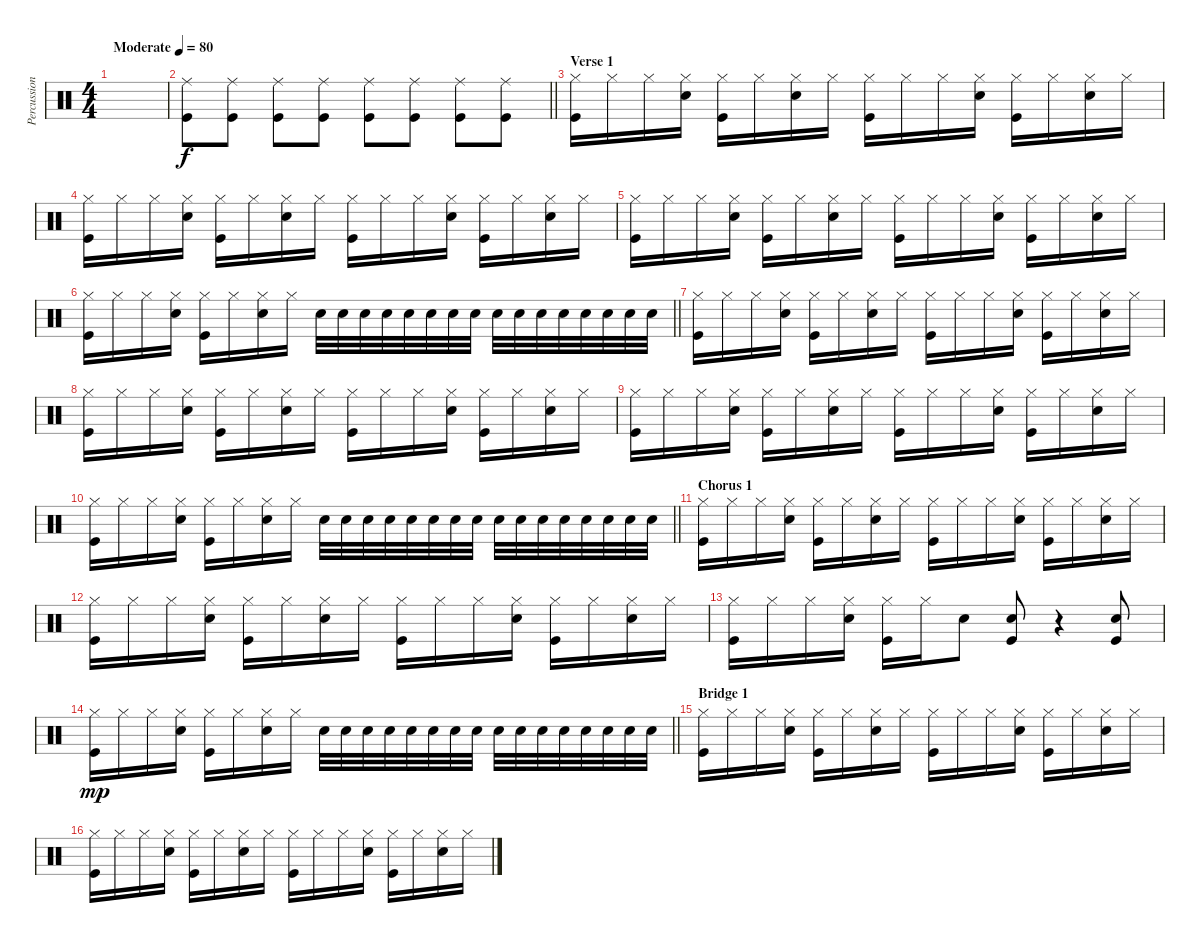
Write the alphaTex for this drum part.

\track ("Percussion" "Percussion") {instrument percussion}
\staff {score}
\articulation defaults
\ts (4 4)
\tempo (80 "Moderate")
\clef neutral
\ks c
|
\barLineRight lightlight
("Ride (middle)" "Kick (hit)").8 ("Ride (middle)" "Kick (hit)").8 ("Ride (middle)" "Kick (hit)").8 ("Ride (middle)" "Kick (hit)").8 ("Ride (middle)" "Kick (hit)").8 ("Ride (middle)" "Kick (hit)").8 ("Ride (middle)" "Kick (hit)").8 ("Ride (middle)" "Kick (hit)").8 |
\section ("" "Verse 1")
("Kick (hit)" "Hi-Hat (closed)").16 "Hi-Hat (closed)".16 "Hi-Hat (closed)".16 ("Snare (hit) 2" "Hi-Hat (closed)").16 ("Kick (hit)" "Hi-Hat (closed)").16 "Hi-Hat (closed)".16 ("Snare (hit) 2" "Hi-Hat (closed)").16 "Hi-Hat (closed)".16 ("Kick (hit)" "Hi-Hat (closed)").16 "Hi-Hat (closed)".16 "Hi-Hat (closed)".16 ("Snare (hit) 2" "Hi-Hat (closed)").16 ("Kick (hit)" "Hi-Hat (closed)").16 "Hi-Hat (closed)".16 ("Snare (hit) 2" "Hi-Hat (closed)").16 "Hi-Hat (closed)".16 |
("Kick (hit)" "Hi-Hat (closed)").16 "Hi-Hat (closed)".16 "Hi-Hat (closed)".16 ("Snare (hit) 2" "Hi-Hat (closed)").16 ("Kick (hit)" "Hi-Hat (closed)").16 "Hi-Hat (closed)".16 ("Snare (hit) 2" "Hi-Hat (closed)").16 "Hi-Hat (closed)".16 ("Kick (hit)" "Hi-Hat (closed)").16 "Hi-Hat (closed)".16 "Hi-Hat (closed)".16 ("Snare (hit) 2" "Hi-Hat (closed)").16 ("Kick (hit)" "Hi-Hat (closed)").16 "Hi-Hat (closed)".16 ("Snare (hit) 2" "Hi-Hat (closed)").16 "Hi-Hat (closed)".16 |
("Kick (hit)" "Hi-Hat (closed)").16 "Hi-Hat (closed)".16 "Hi-Hat (closed)".16 ("Snare (hit) 2" "Hi-Hat (closed)").16 ("Kick (hit)" "Hi-Hat (closed)").16 "Hi-Hat (closed)".16 ("Snare (hit) 2" "Hi-Hat (closed)").16 "Hi-Hat (closed)".16 ("Kick (hit)" "Hi-Hat (closed)").16 "Hi-Hat (closed)".16 "Hi-Hat (closed)".16 ("Snare (hit) 2" "Hi-Hat (closed)").16 ("Kick (hit)" "Hi-Hat (closed)").16 "Hi-Hat (closed)".16 ("Snare (hit) 2" "Hi-Hat (closed)").16 "Hi-Hat (closed)".16 |
\barLineRight lightlight
("Kick (hit)" "Hi-Hat (closed)").16 "Hi-Hat (closed)".16 "Hi-Hat (closed)".16 ("Snare (hit) 2" "Hi-Hat (closed)").16 ("Kick (hit)" "Hi-Hat (closed)").16 "Hi-Hat (closed)".16 ("Snare (hit) 2" "Hi-Hat (closed)").16 "Hi-Hat (closed)".16 "Snare (hit) 2".32 "Snare (hit) 2".32 "Snare (hit) 2".32 "Snare (hit) 2".32 "Snare (hit) 2".32 "Snare (hit) 2".32 "Snare (hit) 2".32 "Snare (hit) 2".32 "Snare (hit) 2".32 "Snare (hit) 2".32 "Snare (hit) 2".32 "Snare (hit) 2".32 "Snare (hit) 2".32 "Snare (hit) 2".32 "Snare (hit) 2".32 "Snare (hit) 2".32 |
("Kick (hit)" "Hi-Hat (closed)").16 "Hi-Hat (closed)".16 "Hi-Hat (closed)".16 ("Snare (hit) 2" "Hi-Hat (closed)").16 ("Kick (hit)" "Hi-Hat (closed)").16 "Hi-Hat (closed)".16 ("Snare (hit) 2" "Hi-Hat (closed)").16 "Hi-Hat (closed)".16 ("Kick (hit)" "Hi-Hat (closed)").16 "Hi-Hat (closed)".16 "Hi-Hat (closed)".16 ("Snare (hit) 2" "Hi-Hat (closed)").16 ("Kick (hit)" "Hi-Hat (closed)").16 "Hi-Hat (closed)".16 ("Snare (hit) 2" "Hi-Hat (closed)").16 "Hi-Hat (closed)".16 |
("Kick (hit)" "Hi-Hat (closed)").16 "Hi-Hat (closed)".16 "Hi-Hat (closed)".16 ("Snare (hit) 2" "Hi-Hat (closed)").16 ("Kick (hit)" "Hi-Hat (closed)").16 "Hi-Hat (closed)".16 ("Snare (hit) 2" "Hi-Hat (closed)").16 "Hi-Hat (closed)".16 ("Kick (hit)" "Hi-Hat (closed)").16 "Hi-Hat (closed)".16 "Hi-Hat (closed)".16 ("Snare (hit) 2" "Hi-Hat (closed)").16 ("Kick (hit)" "Hi-Hat (closed)").16 "Hi-Hat (closed)".16 ("Snare (hit) 2" "Hi-Hat (closed)").16 "Hi-Hat (closed)".16 |
("Kick (hit)" "Hi-Hat (closed)").16 "Hi-Hat (closed)".16 "Hi-Hat (closed)".16 ("Snare (hit) 2" "Hi-Hat (closed)").16 ("Kick (hit)" "Hi-Hat (closed)").16 "Hi-Hat (closed)".16 ("Snare (hit) 2" "Hi-Hat (closed)").16 "Hi-Hat (closed)".16 ("Kick (hit)" "Hi-Hat (closed)").16 "Hi-Hat (closed)".16 "Hi-Hat (closed)".16 ("Snare (hit) 2" "Hi-Hat (closed)").16 ("Kick (hit)" "Hi-Hat (closed)").16 "Hi-Hat (closed)".16 ("Snare (hit) 2" "Hi-Hat (closed)").16 "Hi-Hat (closed)".16 |
\barLineRight lightlight
("Kick (hit)" "Hi-Hat (closed)").16 "Hi-Hat (closed)".16 "Hi-Hat (closed)".16 ("Snare (hit) 2" "Hi-Hat (closed)").16 ("Kick (hit)" "Hi-Hat (closed)").16 "Hi-Hat (closed)".16 ("Snare (hit) 2" "Hi-Hat (closed)").16 "Hi-Hat (closed)".16 "Snare (hit) 2".32 "Snare (hit) 2".32 "Snare (hit) 2".32 "Snare (hit) 2".32 "Snare (hit) 2".32 "Snare (hit) 2".32 "Snare (hit) 2".32 "Snare (hit) 2".32 "Snare (hit) 2".32 "Snare (hit) 2".32 "Snare (hit) 2".32 "Snare (hit) 2".32 "Snare (hit) 2".32 "Snare (hit) 2".32 "Snare (hit) 2".32 "Snare (hit) 2".32 |
\section ("" "Chorus 1")
("Kick (hit)" "Hi-Hat (closed)").16 "Hi-Hat (closed)".16 "Hi-Hat (closed)".16 ("Snare (hit) 2" "Hi-Hat (closed)").16 ("Kick (hit)" "Hi-Hat (closed)").16 "Hi-Hat (closed)".16 ("Snare (hit) 2" "Hi-Hat (closed)").16 "Hi-Hat (closed)".16 ("Kick (hit)" "Hi-Hat (closed)").16 "Hi-Hat (closed)".16 "Hi-Hat (closed)".16 ("Snare (hit) 2" "Hi-Hat (closed)").16 ("Kick (hit)" "Hi-Hat (closed)").16 "Hi-Hat (closed)".16 ("Snare (hit) 2" "Hi-Hat (closed)").16 "Hi-Hat (closed)".16 |
("Kick (hit)" "Hi-Hat (closed)").16 "Hi-Hat (closed)".16 "Hi-Hat (closed)".16 ("Snare (hit) 2" "Hi-Hat (closed)").16 ("Kick (hit)" "Hi-Hat (closed)").16 "Hi-Hat (closed)".16 ("Snare (hit) 2" "Hi-Hat (closed)").16 "Hi-Hat (closed)".16 ("Kick (hit)" "Hi-Hat (closed)").16 "Hi-Hat (closed)".16 "Hi-Hat (closed)".16 ("Snare (hit) 2" "Hi-Hat (closed)").16 ("Kick (hit)" "Hi-Hat (closed)").16 "Hi-Hat (closed)".16 ("Snare (hit) 2" "Hi-Hat (closed)").16 "Hi-Hat (closed)".16 |
("Kick (hit)" "Hi-Hat (closed)").16 "Hi-Hat (closed)".16 "Hi-Hat (closed)".16 ("Snare (hit) 2" "Hi-Hat (closed)").16 ("Kick (hit)" "Hi-Hat (closed)").16 "Hi-Hat (closed)".16 "Snare (hit) 2".8{dy f} ("Kick (hit)" "Snare (hit) 2").8 r.4 ("Snare (hit) 2" "Kick (hit)").8 |
\barLineRight lightlight
("Kick (hit)" "Hi-Hat (closed)").16{dy mp} "Hi-Hat (closed)".16 "Hi-Hat (closed)".16 ("Snare (hit) 2" "Hi-Hat (closed)").16 ("Kick (hit)" "Hi-Hat (closed)").16 "Hi-Hat (closed)".16 ("Snare (hit) 2" "Hi-Hat (closed)").16 "Hi-Hat (closed)".16 "Snare (hit) 2".32 "Snare (hit) 2".32 "Snare (hit) 2".32 "Snare (hit) 2".32 "Snare (hit) 2".32 "Snare (hit) 2".32 "Snare (hit) 2".32 "Snare (hit) 2".32 "Snare (hit) 2".32 "Snare (hit) 2".32 "Snare (hit) 2".32 "Snare (hit) 2".32 "Snare (hit) 2".32 "Snare (hit) 2".32 "Snare (hit) 2".32 "Snare (hit) 2".32 |
\section ("" "Bridge 1")
("Kick (hit)" "Hi-Hat (closed)").16 "Hi-Hat (closed)".16 "Hi-Hat (closed)".16 ("Snare (hit) 2" "Hi-Hat (closed)").16 ("Kick (hit)" "Hi-Hat (closed)").16 "Hi-Hat (closed)".16 ("Snare (hit) 2" "Hi-Hat (closed)").16 "Hi-Hat (closed)".16 ("Kick (hit)" "Hi-Hat (closed)").16 "Hi-Hat (closed)".16 "Hi-Hat (closed)".16 ("Snare (hit) 2" "Hi-Hat (closed)").16 ("Kick (hit)" "Hi-Hat (closed)").16 "Hi-Hat (closed)".16 ("Snare (hit) 2" "Hi-Hat (closed)").16 "Hi-Hat (closed)".16 |
("Kick (hit)" "Hi-Hat (closed)").16 "Hi-Hat (closed)".16 "Hi-Hat (closed)".16 ("Snare (hit) 2" "Hi-Hat (closed)").16 ("Kick (hit)" "Hi-Hat (closed)").16 "Hi-Hat (closed)".16 ("Snare (hit) 2" "Hi-Hat (closed)").16 "Hi-Hat (closed)".16 ("Kick (hit)" "Hi-Hat (closed)").16 "Hi-Hat (closed)".16 "Hi-Hat (closed)".16 ("Snare (hit) 2" "Hi-Hat (closed)").16 ("Kick (hit)" "Hi-Hat (closed)").16 "Hi-Hat (closed)".16 ("Snare (hit) 2" "Hi-Hat (closed)").16 "Hi-Hat (closed)".16
